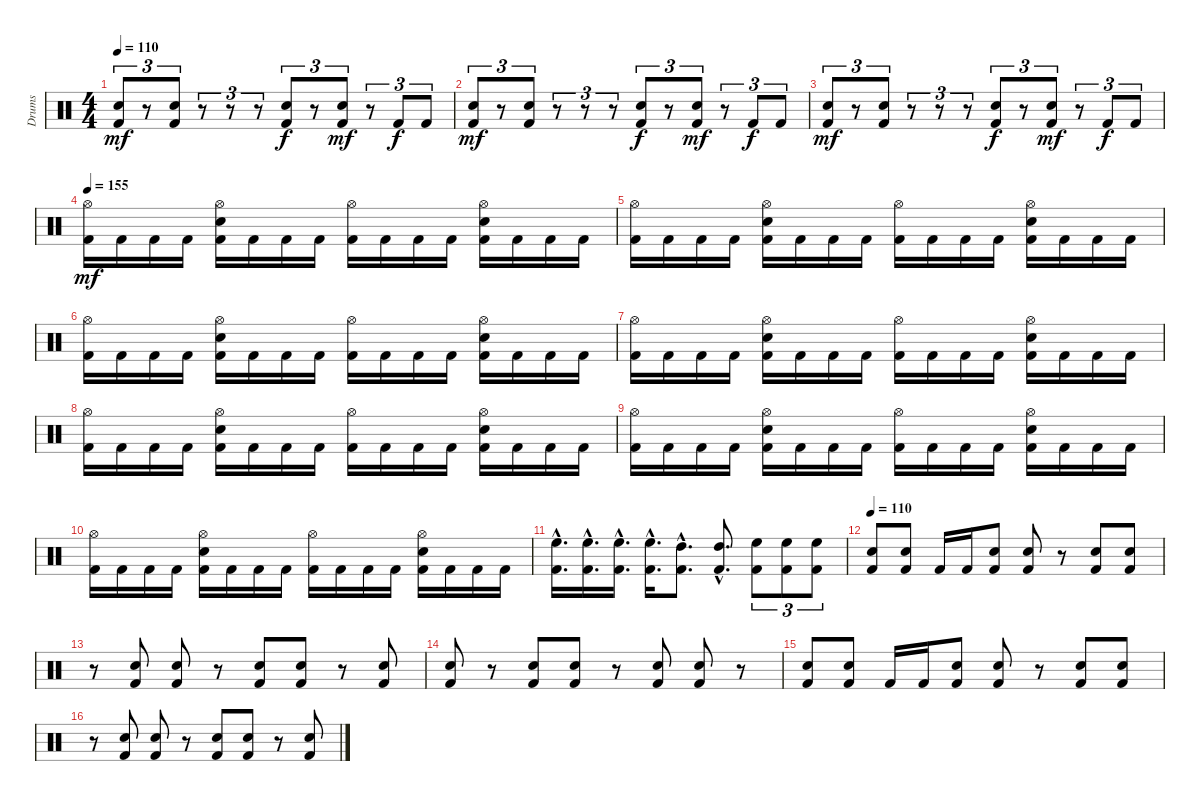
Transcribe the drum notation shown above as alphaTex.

\track ("Drums" "Drums") {instrument percussion}
\staff {score}
\articulation defaults
\ts (4 4)
\tempo 110
\clef neutral
\ks c
("Kick (hit) 2" "Snare (hit) 2").8{tu (3 2) dy mf} r.8{tu (3 2)} ("Kick (hit) 2" "Snare (hit) 2").8{tu (3 2)} r.8{tu (3 2)} r.8{tu (3 2)} r.8{tu (3 2)} ("Kick (hit) 2" "Snare (hit) 2").8{tu (3 2) dy f} r.8{tu (3 2)} ("Kick (hit) 2" "Snare (hit) 2").8{tu (3 2) dy mf} r.8{tu (3 2)} "Kick (hit) 2".8{tu (3 2) dy f} "Kick (hit) 2".8{tu (3 2)} |
("Kick (hit) 2" "Snare (hit) 2").8{tu (3 2) dy mf} r.8{tu (3 2)} ("Kick (hit) 2" "Snare (hit) 2").8{tu (3 2)} r.8{tu (3 2)} r.8{tu (3 2)} r.8{tu (3 2)} ("Kick (hit) 2" "Snare (hit) 2").8{tu (3 2) dy f} r.8{tu (3 2)} ("Kick (hit) 2" "Snare (hit) 2").8{tu (3 2) dy mf} r.8{tu (3 2)} "Kick (hit) 2".8{tu (3 2) dy f} "Kick (hit) 2".8{tu (3 2)} |
("Kick (hit) 2" "Snare (hit) 2").8{tu (3 2) dy mf} r.8{tu (3 2)} ("Kick (hit) 2" "Snare (hit) 2").8{tu (3 2)} r.8{tu (3 2)} r.8{tu (3 2)} r.8{tu (3 2)} ("Kick (hit) 2" "Snare (hit) 2").8{tu (3 2) dy f} r.8{tu (3 2)} ("Kick (hit) 2" "Snare (hit) 2").8{tu (3 2) dy mf} r.8{tu (3 2)} "Kick (hit) 2".8{tu (3 2) dy f} "Kick (hit) 2".8{tu (3 2)} |
\tempo 155
("Kick (hit) 2" "Hi-Hat (open)").16{dy mf} "Kick (hit) 2".16 "Kick (hit) 2".16 "Kick (hit) 2".16 ("Kick (hit) 2" "Snare (hit) 2" "Hi-Hat (open)").16 "Kick (hit) 2".16 "Kick (hit) 2".16 "Kick (hit) 2".16 ("Kick (hit) 2" "Hi-Hat (open)").16 "Kick (hit) 2".16 "Kick (hit) 2".16 "Kick (hit) 2".16 ("Kick (hit) 2" "Snare (hit) 2" "Hi-Hat (open)").16 "Kick (hit) 2".16 "Kick (hit) 2".16 "Kick (hit) 2".16 |
("Kick (hit) 2" "Hi-Hat (open)").16 "Kick (hit) 2".16 "Kick (hit) 2".16 "Kick (hit) 2".16 ("Kick (hit) 2" "Snare (hit) 2" "Hi-Hat (open)").16 "Kick (hit) 2".16 "Kick (hit) 2".16 "Kick (hit) 2".16 ("Kick (hit) 2" "Hi-Hat (open)").16 "Kick (hit) 2".16 "Kick (hit) 2".16 "Kick (hit) 2".16 ("Kick (hit) 2" "Snare (hit) 2" "Hi-Hat (open)").16 "Kick (hit) 2".16 "Kick (hit) 2".16 "Kick (hit) 2".16 |
("Kick (hit) 2" "Hi-Hat (open)").16 "Kick (hit) 2".16 "Kick (hit) 2".16 "Kick (hit) 2".16 ("Kick (hit) 2" "Snare (hit) 2" "Hi-Hat (open)").16 "Kick (hit) 2".16 "Kick (hit) 2".16 "Kick (hit) 2".16 ("Kick (hit) 2" "Hi-Hat (open)").16 "Kick (hit) 2".16 "Kick (hit) 2".16 "Kick (hit) 2".16 ("Kick (hit) 2" "Snare (hit) 2" "Hi-Hat (open)").16 "Kick (hit) 2".16 "Kick (hit) 2".16 "Kick (hit) 2".16 |
("Kick (hit) 2" "Hi-Hat (open)").16 "Kick (hit) 2".16 "Kick (hit) 2".16 "Kick (hit) 2".16 ("Kick (hit) 2" "Snare (hit) 2" "Hi-Hat (open)").16 "Kick (hit) 2".16 "Kick (hit) 2".16 "Kick (hit) 2".16 ("Kick (hit) 2" "Hi-Hat (open)").16 "Kick (hit) 2".16 "Kick (hit) 2".16 "Kick (hit) 2".16 ("Kick (hit) 2" "Snare (hit) 2" "Hi-Hat (open)").16 "Kick (hit) 2".16 "Kick (hit) 2".16 "Kick (hit) 2".16 |
("Kick (hit) 2" "Hi-Hat (open)").16 "Kick (hit) 2".16 "Kick (hit) 2".16 "Kick (hit) 2".16 ("Kick (hit) 2" "Snare (hit) 2" "Hi-Hat (open)").16 "Kick (hit) 2".16 "Kick (hit) 2".16 "Kick (hit) 2".16 ("Kick (hit) 2" "Hi-Hat (open)").16 "Kick (hit) 2".16 "Kick (hit) 2".16 "Kick (hit) 2".16 ("Kick (hit) 2" "Snare (hit) 2" "Hi-Hat (open)").16 "Kick (hit) 2".16 "Kick (hit) 2".16 "Kick (hit) 2".16 |
("Kick (hit) 2" "Hi-Hat (open)").16 "Kick (hit) 2".16 "Kick (hit) 2".16 "Kick (hit) 2".16 ("Kick (hit) 2" "Snare (hit) 2" "Hi-Hat (open)").16 "Kick (hit) 2".16 "Kick (hit) 2".16 "Kick (hit) 2".16 ("Kick (hit) 2" "Hi-Hat (open)").16 "Kick (hit) 2".16 "Kick (hit) 2".16 "Kick (hit) 2".16 ("Kick (hit) 2" "Snare (hit) 2" "Hi-Hat (open)").16 "Kick (hit) 2".16 "Kick (hit) 2".16 "Kick (hit) 2".16 |
("Kick (hit) 2" "Hi-Hat (open)").16 "Kick (hit) 2".16 "Kick (hit) 2".16 "Kick (hit) 2".16 ("Kick (hit) 2" "Snare (hit) 2" "Hi-Hat (open)").16 "Kick (hit) 2".16 "Kick (hit) 2".16 "Kick (hit) 2".16 ("Kick (hit) 2" "Hi-Hat (open)").16 "Kick (hit) 2".16 "Kick (hit) 2".16 "Kick (hit) 2".16 ("Kick (hit) 2" "Snare (hit) 2" "Hi-Hat (open)").16 "Kick (hit) 2".16 "Kick (hit) 2".16 "Kick (hit) 2".16 |
("Kick (hit) 2"{hac} "High Floor Tom (hit)"{hac}).16{d} ("Kick (hit) 2"{hac} "High Floor Tom (hit)"{hac}).16{d} ("Kick (hit) 2"{hac} "High Floor Tom (hit)"{hac}).16{d} ("Kick (hit) 2"{hac} "High Floor Tom (hit)"{hac}).16{d} ("Kick (hit) 2"{hac} "High Tom (hit)"{hac}).8{d} ("Kick (hit) 2"{hac} "High Tom (hit)"{hac}).8{d} ("Kick (hit) 2" "High Floor Tom (hit)").8{tu (3 2)} ("Kick (hit) 2" "High Floor Tom (hit)").8{tu (3 2)} ("Kick (hit) 2" "High Floor Tom (hit)").8{tu (3 2)} |
\tempo 110
("Kick (hit) 2" "Snare (hit) 2").8 ("Kick (hit) 2" "Snare (hit) 2").8 "Kick (hit) 2".16 "Kick (hit) 2".16 ("Kick (hit) 2" "Snare (hit) 2").8 ("Kick (hit) 2" "Snare (hit) 2").8 r.8 ("Kick (hit) 2" "Snare (hit) 2").8 ("Kick (hit) 2" "Snare (hit) 2").8 |
r.8 ("Kick (hit) 2" "Snare (hit) 2").8 ("Kick (hit) 2" "Snare (hit) 2").8 r.8 ("Kick (hit) 2" "Snare (hit) 2").8 ("Kick (hit) 2" "Snare (hit) 2").8 r.8 ("Kick (hit) 2" "Snare (hit) 2").8 |
("Kick (hit) 2" "Snare (hit) 2").8 r.8 ("Kick (hit) 2" "Snare (hit) 2").8 ("Kick (hit) 2" "Snare (hit) 2").8 r.8 ("Kick (hit) 2" "Snare (hit) 2").8 ("Kick (hit) 2" "Snare (hit) 2").8 r.8 |
("Kick (hit) 2" "Snare (hit) 2").8 ("Kick (hit) 2" "Snare (hit) 2").8 "Kick (hit) 2".16 "Kick (hit) 2".16 ("Kick (hit) 2" "Snare (hit) 2").8 ("Kick (hit) 2" "Snare (hit) 2").8 r.8 ("Kick (hit) 2" "Snare (hit) 2").8 ("Kick (hit) 2" "Snare (hit) 2").8 |
r.8 ("Kick (hit) 2" "Snare (hit) 2").8 ("Kick (hit) 2" "Snare (hit) 2").8 r.8 ("Kick (hit) 2" "Snare (hit) 2").8 ("Kick (hit) 2" "Snare (hit) 2").8 r.8 ("Kick (hit) 2" "Snare (hit) 2").8
